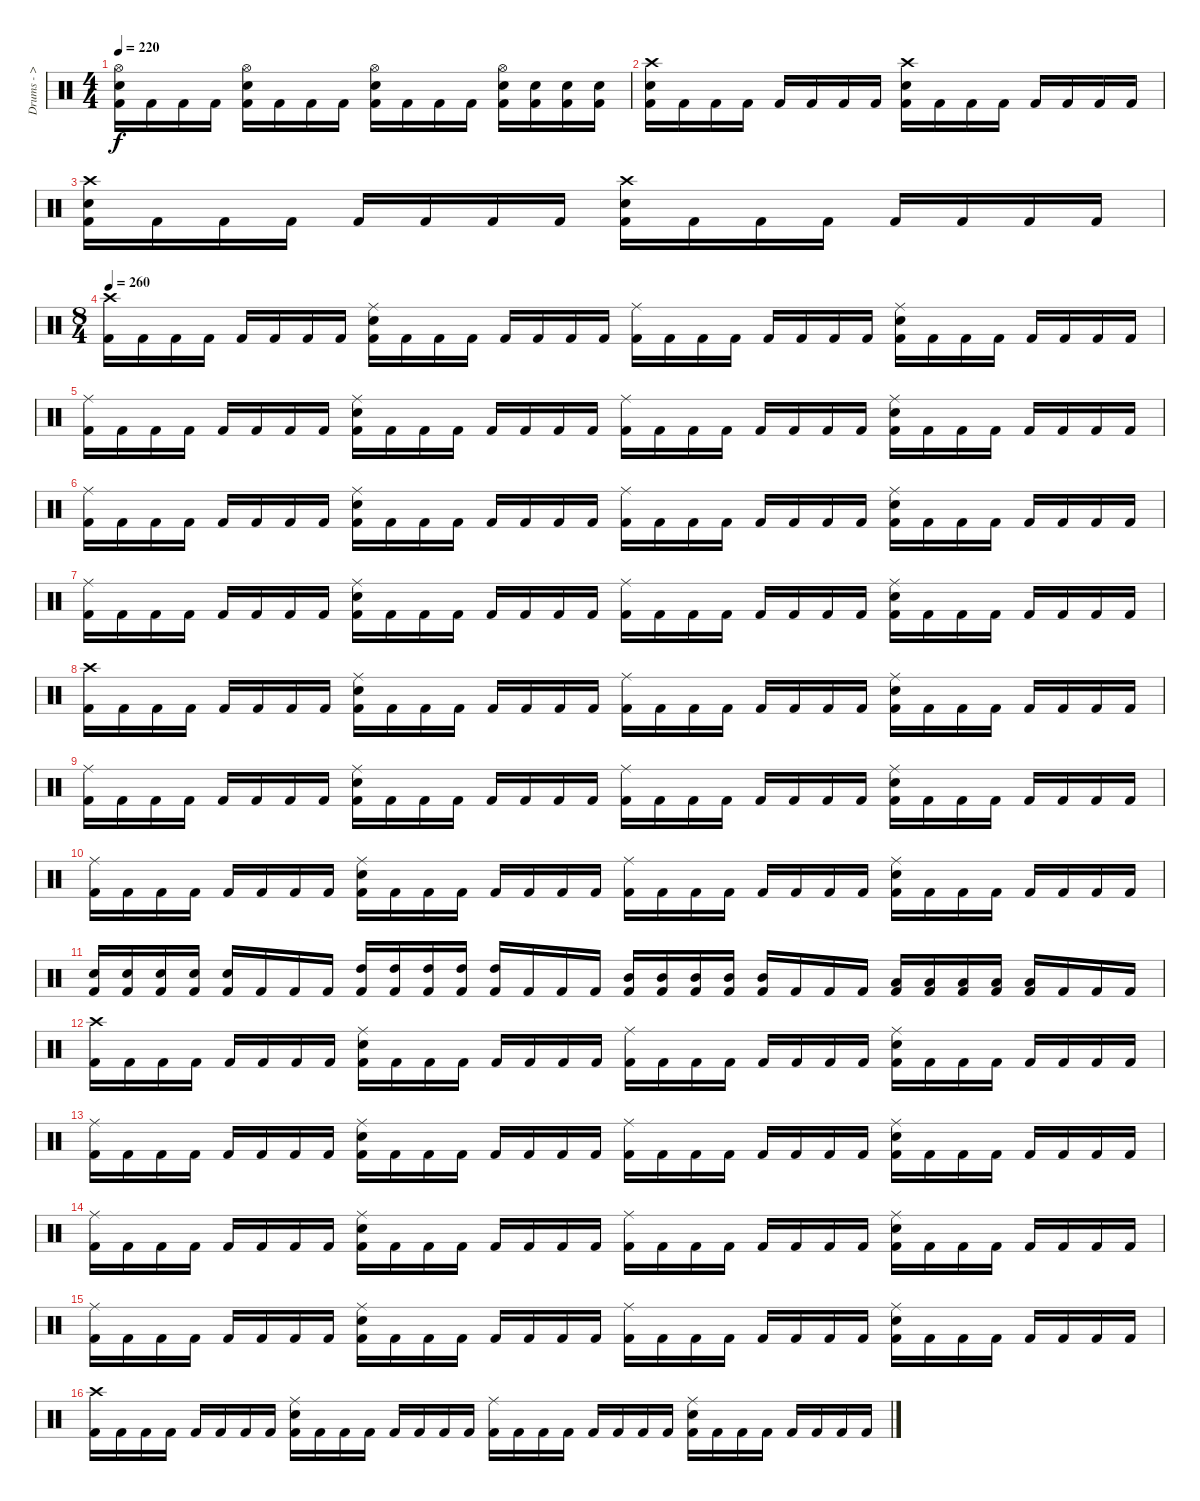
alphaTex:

\track ("Drums - > Nicholas" "Drums - > ") {instrument percussion}
\staff {score}
\articulation defaults
\ts (4 4)
\tempo 220
\clef neutral
\ks c
("Kick (hit) 2" "Snare (hit) 2" "Hi-Hat (open)").16{dy f} "Kick (hit) 2".16 "Kick (hit) 2".16 "Kick (hit) 2".16 ("Kick (hit) 2" "Snare (hit) 2" "Hi-Hat (open)").16 "Kick (hit) 2".16 "Kick (hit) 2".16 "Kick (hit) 2".16 ("Kick (hit) 2" "Snare (hit) 2" "Hi-Hat (open)").16 "Kick (hit) 2".16 "Kick (hit) 2".16 "Kick (hit) 2".16 ("Kick (hit) 2" "Snare (hit) 2" "Hi-Hat (open)").16 ("Kick (hit) 2" "Snare (hit) 2").16 ("Kick (hit) 2" "Snare (hit) 2").16 ("Kick (hit) 2" "Snare (hit) 2").16 |
("Kick (hit) 2" "Snare (hit) 2" "Crash high (hit)").16 "Kick (hit) 2".16 "Kick (hit) 2".16 "Kick (hit) 2".16 "Kick (hit) 2".16 "Kick (hit) 2".16 "Kick (hit) 2".16 "Kick (hit) 2".16 ("Kick (hit) 2" "Snare (hit) 2" "Crash high (hit)").16 "Kick (hit) 2".16 "Kick (hit) 2".16 "Kick (hit) 2".16 "Kick (hit) 2".16 "Kick (hit) 2".16 "Kick (hit) 2".16 "Kick (hit) 2".16 |
("Kick (hit) 2" "Snare (hit) 2" "Crash high (hit)").16 "Kick (hit) 2".16 "Kick (hit) 2".16 "Kick (hit) 2".16 "Kick (hit) 2".16 "Kick (hit) 2".16 "Kick (hit) 2".16 "Kick (hit) 2".16 ("Kick (hit) 2" "Snare (hit) 2" "Crash high (hit)").16 "Kick (hit) 2".16 "Kick (hit) 2".16 "Kick (hit) 2".16 "Kick (hit) 2".16 "Kick (hit) 2".16 "Kick (hit) 2".16 "Kick (hit) 2".16 |
\ts (8 4)
\tempo 260
("Kick (hit) 2" "Crash high (hit)").16 "Kick (hit) 2".16 "Kick (hit) 2".16 "Kick (hit) 2".16 "Kick (hit) 2".16 "Kick (hit) 2".16 "Kick (hit) 2".16 "Kick (hit) 2".16 ("Kick (hit) 2" "Snare (hit) 2" "Ride (middle)").16 "Kick (hit) 2".16 "Kick (hit) 2".16 "Kick (hit) 2".16 "Kick (hit) 2".16 "Kick (hit) 2".16 "Kick (hit) 2".16 "Kick (hit) 2".16 ("Kick (hit) 2" "Ride (middle)").16 "Kick (hit) 2".16 "Kick (hit) 2".16 "Kick (hit) 2".16 "Kick (hit) 2".16 "Kick (hit) 2".16 "Kick (hit) 2".16 "Kick (hit) 2".16 ("Kick (hit) 2" "Snare (hit) 2" "Ride (middle)").16 "Kick (hit) 2".16 "Kick (hit) 2".16 "Kick (hit) 2".16 "Kick (hit) 2".16 "Kick (hit) 2".16 "Kick (hit) 2".16 "Kick (hit) 2".16 |
("Kick (hit) 2" "Ride (middle)").16 "Kick (hit) 2".16 "Kick (hit) 2".16 "Kick (hit) 2".16 "Kick (hit) 2".16 "Kick (hit) 2".16 "Kick (hit) 2".16 "Kick (hit) 2".16 ("Kick (hit) 2" "Snare (hit) 2" "Ride (middle)").16 "Kick (hit) 2".16 "Kick (hit) 2".16 "Kick (hit) 2".16 "Kick (hit) 2".16 "Kick (hit) 2".16 "Kick (hit) 2".16 "Kick (hit) 2".16 ("Kick (hit) 2" "Ride (middle)").16 "Kick (hit) 2".16 "Kick (hit) 2".16 "Kick (hit) 2".16 "Kick (hit) 2".16 "Kick (hit) 2".16 "Kick (hit) 2".16 "Kick (hit) 2".16 ("Kick (hit) 2" "Snare (hit) 2" "Ride (middle)").16 "Kick (hit) 2".16 "Kick (hit) 2".16 "Kick (hit) 2".16 "Kick (hit) 2".16 "Kick (hit) 2".16 "Kick (hit) 2".16 "Kick (hit) 2".16 |
("Kick (hit) 2" "Ride (middle)").16 "Kick (hit) 2".16 "Kick (hit) 2".16 "Kick (hit) 2".16 "Kick (hit) 2".16 "Kick (hit) 2".16 "Kick (hit) 2".16 "Kick (hit) 2".16 ("Kick (hit) 2" "Snare (hit) 2" "Ride (middle)").16 "Kick (hit) 2".16 "Kick (hit) 2".16 "Kick (hit) 2".16 "Kick (hit) 2".16 "Kick (hit) 2".16 "Kick (hit) 2".16 "Kick (hit) 2".16 ("Kick (hit) 2" "Ride (middle)").16 "Kick (hit) 2".16 "Kick (hit) 2".16 "Kick (hit) 2".16 "Kick (hit) 2".16 "Kick (hit) 2".16 "Kick (hit) 2".16 "Kick (hit) 2".16 ("Kick (hit) 2" "Snare (hit) 2" "Ride (middle)").16 "Kick (hit) 2".16 "Kick (hit) 2".16 "Kick (hit) 2".16 "Kick (hit) 2".16 "Kick (hit) 2".16 "Kick (hit) 2".16 "Kick (hit) 2".16 |
("Kick (hit) 2" "Ride (middle)").16 "Kick (hit) 2".16 "Kick (hit) 2".16 "Kick (hit) 2".16 "Kick (hit) 2".16 "Kick (hit) 2".16 "Kick (hit) 2".16 "Kick (hit) 2".16 ("Kick (hit) 2" "Snare (hit) 2" "Ride (middle)").16 "Kick (hit) 2".16 "Kick (hit) 2".16 "Kick (hit) 2".16 "Kick (hit) 2".16 "Kick (hit) 2".16 "Kick (hit) 2".16 "Kick (hit) 2".16 ("Kick (hit) 2" "Ride (middle)").16 "Kick (hit) 2".16 "Kick (hit) 2".16 "Kick (hit) 2".16 "Kick (hit) 2".16 "Kick (hit) 2".16 "Kick (hit) 2".16 "Kick (hit) 2".16 ("Kick (hit) 2" "Snare (hit) 2" "Ride (middle)").16 "Kick (hit) 2".16 "Kick (hit) 2".16 "Kick (hit) 2".16 "Kick (hit) 2".16 "Kick (hit) 2".16 "Kick (hit) 2".16 "Kick (hit) 2".16 |
("Kick (hit) 2" "Crash high (hit)").16 "Kick (hit) 2".16 "Kick (hit) 2".16 "Kick (hit) 2".16 "Kick (hit) 2".16 "Kick (hit) 2".16 "Kick (hit) 2".16 "Kick (hit) 2".16 ("Kick (hit) 2" "Snare (hit) 2" "Ride (middle)").16 "Kick (hit) 2".16 "Kick (hit) 2".16 "Kick (hit) 2".16 "Kick (hit) 2".16 "Kick (hit) 2".16 "Kick (hit) 2".16 "Kick (hit) 2".16 ("Kick (hit) 2" "Ride (middle)").16 "Kick (hit) 2".16 "Kick (hit) 2".16 "Kick (hit) 2".16 "Kick (hit) 2".16 "Kick (hit) 2".16 "Kick (hit) 2".16 "Kick (hit) 2".16 ("Kick (hit) 2" "Snare (hit) 2" "Ride (middle)").16 "Kick (hit) 2".16 "Kick (hit) 2".16 "Kick (hit) 2".16 "Kick (hit) 2".16 "Kick (hit) 2".16 "Kick (hit) 2".16 "Kick (hit) 2".16 |
("Kick (hit) 2" "Ride (middle)").16 "Kick (hit) 2".16 "Kick (hit) 2".16 "Kick (hit) 2".16 "Kick (hit) 2".16 "Kick (hit) 2".16 "Kick (hit) 2".16 "Kick (hit) 2".16 ("Kick (hit) 2" "Snare (hit) 2" "Ride (middle)").16 "Kick (hit) 2".16 "Kick (hit) 2".16 "Kick (hit) 2".16 "Kick (hit) 2".16 "Kick (hit) 2".16 "Kick (hit) 2".16 "Kick (hit) 2".16 ("Kick (hit) 2" "Ride (middle)").16 "Kick (hit) 2".16 "Kick (hit) 2".16 "Kick (hit) 2".16 "Kick (hit) 2".16 "Kick (hit) 2".16 "Kick (hit) 2".16 "Kick (hit) 2".16 ("Kick (hit) 2" "Snare (hit) 2" "Ride (middle)").16 "Kick (hit) 2".16 "Kick (hit) 2".16 "Kick (hit) 2".16 "Kick (hit) 2".16 "Kick (hit) 2".16 "Kick (hit) 2".16 "Kick (hit) 2".16 |
("Kick (hit) 2" "Ride (middle)").16 "Kick (hit) 2".16 "Kick (hit) 2".16 "Kick (hit) 2".16 "Kick (hit) 2".16 "Kick (hit) 2".16 "Kick (hit) 2".16 "Kick (hit) 2".16 ("Kick (hit) 2" "Snare (hit) 2" "Ride (middle)").16 "Kick (hit) 2".16 "Kick (hit) 2".16 "Kick (hit) 2".16 "Kick (hit) 2".16 "Kick (hit) 2".16 "Kick (hit) 2".16 "Kick (hit) 2".16 ("Kick (hit) 2" "Ride (middle)").16 "Kick (hit) 2".16 "Kick (hit) 2".16 "Kick (hit) 2".16 "Kick (hit) 2".16 "Kick (hit) 2".16 "Kick (hit) 2".16 "Kick (hit) 2".16 ("Kick (hit) 2" "Snare (hit) 2" "Ride (middle)").16 "Kick (hit) 2".16 "Kick (hit) 2".16 "Kick (hit) 2".16 "Kick (hit) 2".16 "Kick (hit) 2".16 "Kick (hit) 2".16 "Kick (hit) 2".16 |
("Kick (hit) 2" "Snare (hit) 2").16 ("Kick (hit) 2" "Snare (hit) 2").16 ("Kick (hit) 2" "Snare (hit) 2").16 ("Kick (hit) 2" "Snare (hit) 2").16 ("Kick (hit) 2" "Snare (hit) 2").16 "Kick (hit) 2".16 "Kick (hit) 2".16 "Kick (hit) 2".16 ("Kick (hit) 2" "High Tom (hit)").16 ("Kick (hit) 2" "High Tom (hit)").16 ("Kick (hit) 2" "High Tom (hit)").16 ("Kick (hit) 2" "High Tom (hit)").16 ("Kick (hit) 2" "High Tom (hit)").16 "Kick (hit) 2".16 "Kick (hit) 2".16 "Kick (hit) 2".16 ("Kick (hit) 2" "Mid Tom (hit)").16 ("Kick (hit) 2" "Mid Tom (hit)").16 ("Kick (hit) 2" "Mid Tom (hit)").16 ("Kick (hit) 2" "Mid Tom (hit)").16 ("Kick (hit) 2" "Mid Tom (hit)").16 "Kick (hit) 2".16 "Kick (hit) 2".16 "Kick (hit) 2".16 ("Kick (hit) 2" "Low Tom (hit)").16 ("Kick (hit) 2" "Low Tom (hit)").16 ("Kick (hit) 2" "Low Tom (hit)").16 ("Kick (hit) 2" "Low Tom (hit)").16 ("Kick (hit) 2" "Low Tom (hit)").16 "Kick (hit) 2".16 "Kick (hit) 2".16 "Kick (hit) 2".16 |
("Kick (hit) 2" "Crash high (hit)").16 "Kick (hit) 2".16 "Kick (hit) 2".16 "Kick (hit) 2".16 "Kick (hit) 2".16 "Kick (hit) 2".16 "Kick (hit) 2".16 "Kick (hit) 2".16 ("Kick (hit) 2" "Snare (hit) 2" "Ride (middle)").16 "Kick (hit) 2".16 "Kick (hit) 2".16 "Kick (hit) 2".16 "Kick (hit) 2".16 "Kick (hit) 2".16 "Kick (hit) 2".16 "Kick (hit) 2".16 ("Kick (hit) 2" "Ride (middle)").16 "Kick (hit) 2".16 "Kick (hit) 2".16 "Kick (hit) 2".16 "Kick (hit) 2".16 "Kick (hit) 2".16 "Kick (hit) 2".16 "Kick (hit) 2".16 ("Kick (hit) 2" "Snare (hit) 2" "Ride (middle)").16 "Kick (hit) 2".16 "Kick (hit) 2".16 "Kick (hit) 2".16 "Kick (hit) 2".16 "Kick (hit) 2".16 "Kick (hit) 2".16 "Kick (hit) 2".16 |
("Kick (hit) 2" "Ride (middle)").16 "Kick (hit) 2".16 "Kick (hit) 2".16 "Kick (hit) 2".16 "Kick (hit) 2".16 "Kick (hit) 2".16 "Kick (hit) 2".16 "Kick (hit) 2".16 ("Kick (hit) 2" "Snare (hit) 2" "Ride (middle)").16 "Kick (hit) 2".16 "Kick (hit) 2".16 "Kick (hit) 2".16 "Kick (hit) 2".16 "Kick (hit) 2".16 "Kick (hit) 2".16 "Kick (hit) 2".16 ("Kick (hit) 2" "Ride (middle)").16 "Kick (hit) 2".16 "Kick (hit) 2".16 "Kick (hit) 2".16 "Kick (hit) 2".16 "Kick (hit) 2".16 "Kick (hit) 2".16 "Kick (hit) 2".16 ("Kick (hit) 2" "Snare (hit) 2" "Ride (middle)").16 "Kick (hit) 2".16 "Kick (hit) 2".16 "Kick (hit) 2".16 "Kick (hit) 2".16 "Kick (hit) 2".16 "Kick (hit) 2".16 "Kick (hit) 2".16 |
("Kick (hit) 2" "Ride (middle)").16 "Kick (hit) 2".16 "Kick (hit) 2".16 "Kick (hit) 2".16 "Kick (hit) 2".16 "Kick (hit) 2".16 "Kick (hit) 2".16 "Kick (hit) 2".16 ("Kick (hit) 2" "Snare (hit) 2" "Ride (middle)").16 "Kick (hit) 2".16 "Kick (hit) 2".16 "Kick (hit) 2".16 "Kick (hit) 2".16 "Kick (hit) 2".16 "Kick (hit) 2".16 "Kick (hit) 2".16 ("Kick (hit) 2" "Ride (middle)").16 "Kick (hit) 2".16 "Kick (hit) 2".16 "Kick (hit) 2".16 "Kick (hit) 2".16 "Kick (hit) 2".16 "Kick (hit) 2".16 "Kick (hit) 2".16 ("Kick (hit) 2" "Snare (hit) 2" "Ride (middle)").16 "Kick (hit) 2".16 "Kick (hit) 2".16 "Kick (hit) 2".16 "Kick (hit) 2".16 "Kick (hit) 2".16 "Kick (hit) 2".16 "Kick (hit) 2".16 |
("Kick (hit) 2" "Ride (middle)").16 "Kick (hit) 2".16 "Kick (hit) 2".16 "Kick (hit) 2".16 "Kick (hit) 2".16 "Kick (hit) 2".16 "Kick (hit) 2".16 "Kick (hit) 2".16 ("Kick (hit) 2" "Snare (hit) 2" "Ride (middle)").16 "Kick (hit) 2".16 "Kick (hit) 2".16 "Kick (hit) 2".16 "Kick (hit) 2".16 "Kick (hit) 2".16 "Kick (hit) 2".16 "Kick (hit) 2".16 ("Kick (hit) 2" "Ride (middle)").16 "Kick (hit) 2".16 "Kick (hit) 2".16 "Kick (hit) 2".16 "Kick (hit) 2".16 "Kick (hit) 2".16 "Kick (hit) 2".16 "Kick (hit) 2".16 ("Kick (hit) 2" "Snare (hit) 2" "Ride (middle)").16 "Kick (hit) 2".16 "Kick (hit) 2".16 "Kick (hit) 2".16 "Kick (hit) 2".16 "Kick (hit) 2".16 "Kick (hit) 2".16 "Kick (hit) 2".16 |
("Kick (hit) 2" "Crash high (hit)").16 "Kick (hit) 2".16 "Kick (hit) 2".16 "Kick (hit) 2".16 "Kick (hit) 2".16 "Kick (hit) 2".16 "Kick (hit) 2".16 "Kick (hit) 2".16 ("Kick (hit) 2" "Snare (hit) 2" "Ride (middle)").16 "Kick (hit) 2".16 "Kick (hit) 2".16 "Kick (hit) 2".16 "Kick (hit) 2".16 "Kick (hit) 2".16 "Kick (hit) 2".16 "Kick (hit) 2".16 ("Kick (hit) 2" "Ride (middle)").16 "Kick (hit) 2".16 "Kick (hit) 2".16 "Kick (hit) 2".16 "Kick (hit) 2".16 "Kick (hit) 2".16 "Kick (hit) 2".16 "Kick (hit) 2".16 ("Kick (hit) 2" "Snare (hit) 2" "Ride (middle)").16 "Kick (hit) 2".16 "Kick (hit) 2".16 "Kick (hit) 2".16 "Kick (hit) 2".16 "Kick (hit) 2".16 "Kick (hit) 2".16 "Kick (hit) 2".16
